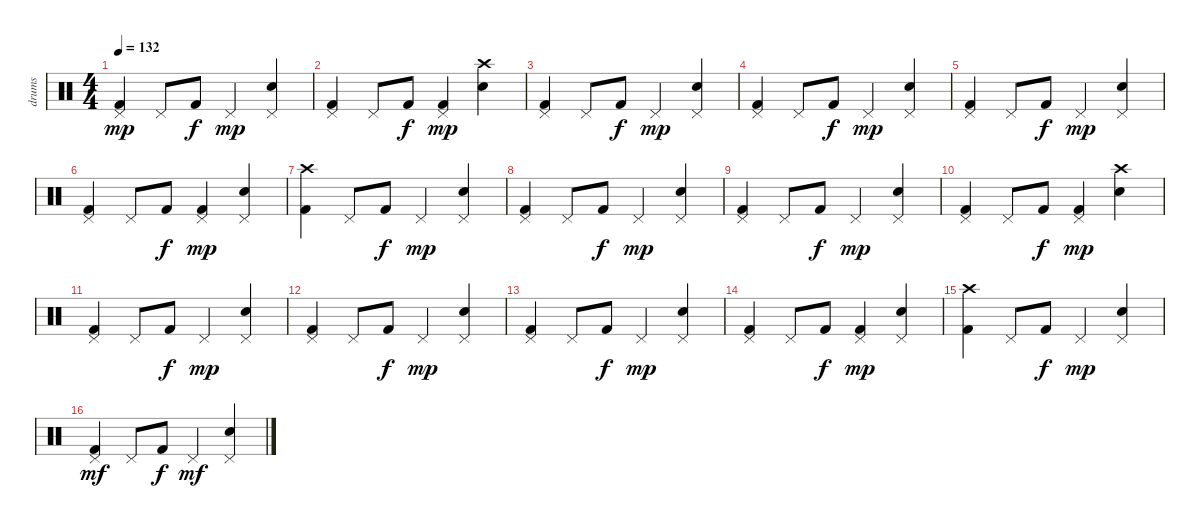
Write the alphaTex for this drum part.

\track ("drums" "drums") {instrument percussion}
\staff {score}
\articulation defaults
\ts (4 4)
\tempo 132
\clef neutral
\ks c
("Kick (hit) 2" "Pedal Hi-Hat (hit)").4{dy mp} "Pedal Hi-Hat (hit)".8 "Kick (hit) 2".8{dy f} "Pedal Hi-Hat (hit)".4{dy mp} ("Electric Snare (hit)" "Pedal Hi-Hat (hit)").4 |
("Kick (hit) 2" "Pedal Hi-Hat (hit)").4 "Pedal Hi-Hat (hit)".8 "Kick (hit) 2".8{dy f} ("Kick (hit) 2" "Pedal Hi-Hat (hit)").4{dy mp} ("Electric Snare (hit)" "Crash high (hit)").4 |
("Kick (hit) 2" "Pedal Hi-Hat (hit)").4 "Pedal Hi-Hat (hit)".8 "Kick (hit) 2".8{dy f} "Pedal Hi-Hat (hit)".4{dy mp} ("Electric Snare (hit)" "Pedal Hi-Hat (hit)").4 |
("Kick (hit) 2" "Pedal Hi-Hat (hit)").4 "Pedal Hi-Hat (hit)".8 "Kick (hit) 2".8{dy f} "Pedal Hi-Hat (hit)".4{dy mp} ("Electric Snare (hit)" "Pedal Hi-Hat (hit)").4 |
("Kick (hit) 2" "Pedal Hi-Hat (hit)").4 "Pedal Hi-Hat (hit)".8 "Kick (hit) 2".8{dy f} "Pedal Hi-Hat (hit)".4{dy mp} ("Electric Snare (hit)" "Pedal Hi-Hat (hit)").4 |
("Kick (hit) 2" "Pedal Hi-Hat (hit)").4 "Pedal Hi-Hat (hit)".8 "Kick (hit) 2".8{dy f} ("Kick (hit) 2" "Pedal Hi-Hat (hit)").4{dy mp} ("Electric Snare (hit)" "Pedal Hi-Hat (hit)").4 |
("Kick (hit) 2" "Crash high (hit)").4 "Pedal Hi-Hat (hit)".8 "Kick (hit) 2".8{dy f} "Pedal Hi-Hat (hit)".4{dy mp} ("Electric Snare (hit)" "Pedal Hi-Hat (hit)").4 |
("Kick (hit) 2" "Pedal Hi-Hat (hit)").4 "Pedal Hi-Hat (hit)".8 "Kick (hit) 2".8{dy f} "Pedal Hi-Hat (hit)".4{dy mp} ("Electric Snare (hit)" "Pedal Hi-Hat (hit)").4 |
("Kick (hit) 2" "Pedal Hi-Hat (hit)").4 "Pedal Hi-Hat (hit)".8 "Kick (hit) 2".8{dy f} "Pedal Hi-Hat (hit)".4{dy mp} ("Electric Snare (hit)" "Pedal Hi-Hat (hit)").4 |
("Kick (hit) 2" "Pedal Hi-Hat (hit)").4 "Pedal Hi-Hat (hit)".8 "Kick (hit) 2".8{dy f} ("Kick (hit) 2" "Pedal Hi-Hat (hit)").4{dy mp} ("Electric Snare (hit)" "Crash high (hit)").4 |
("Kick (hit) 2" "Pedal Hi-Hat (hit)").4 "Pedal Hi-Hat (hit)".8 "Kick (hit) 2".8{dy f} "Pedal Hi-Hat (hit)".4{dy mp} ("Electric Snare (hit)" "Pedal Hi-Hat (hit)").4 |
("Kick (hit) 2" "Pedal Hi-Hat (hit)").4 "Pedal Hi-Hat (hit)".8 "Kick (hit) 2".8{dy f} "Pedal Hi-Hat (hit)".4{dy mp} ("Electric Snare (hit)" "Pedal Hi-Hat (hit)").4 |
("Kick (hit) 2" "Pedal Hi-Hat (hit)").4 "Pedal Hi-Hat (hit)".8 "Kick (hit) 2".8{dy f} "Pedal Hi-Hat (hit)".4{dy mp} ("Electric Snare (hit)" "Pedal Hi-Hat (hit)").4 |
("Kick (hit) 2" "Pedal Hi-Hat (hit)").4 "Pedal Hi-Hat (hit)".8 "Kick (hit) 2".8{dy f} ("Kick (hit) 2" "Pedal Hi-Hat (hit)").4{dy mp} ("Electric Snare (hit)" "Pedal Hi-Hat (hit)").4 |
("Kick (hit) 2" "Crash high (hit)").4 "Pedal Hi-Hat (hit)".8 "Kick (hit) 2".8{dy f} "Pedal Hi-Hat (hit)".4{dy mp} ("Electric Snare (hit)" "Pedal Hi-Hat (hit)").4 |
("Kick (hit) 2" "Pedal Hi-Hat (hit)").4{dy mf} "Pedal Hi-Hat (hit)".8 "Kick (hit) 2".8{dy f} "Pedal Hi-Hat (hit)".4{dy mf} ("Electric Snare (hit)" "Pedal Hi-Hat (hit)").4
